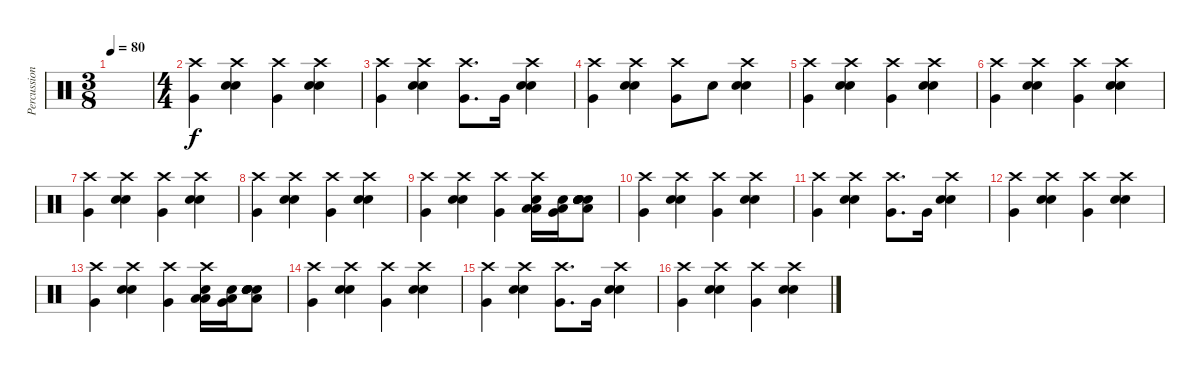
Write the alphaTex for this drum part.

\track ("Percussion" "Percussion") {instrument percussion}
\staff {score}
\articulation defaults
\ts (3 8)
\tempo 80
\clef neutral
\ks c
|
\ts (4 4)
("Crash high (hit)" "Very Low Tom (hit)").4 ("Crash high (hit)" "Snare (hit) 2" "Snare (hit) 2").4 ("Crash high (hit)" "Very Low Tom (hit)").4 ("Crash high (hit)" "Snare (hit) 2" "Snare (hit) 2").4 |
("Crash high (hit)" "Very Low Tom (hit)").4 ("Crash high (hit)" "Snare (hit) 2" "Snare (hit) 2").4 ("Crash high (hit)" "Very Low Tom (hit)").8{d} "Very Low Tom (hit)".16 ("Crash high (hit)" "Snare (hit) 2" "Snare (hit) 2").4 |
("Crash high (hit)" "Very Low Tom (hit)").4 ("Crash high (hit)" "Snare (hit) 2" "Snare (hit) 2").4 ("Crash high (hit)" "Very Low Tom (hit)").8 "Snare (hit) 2".8 ("Crash high (hit)" "Snare (hit) 2" "Snare (hit) 2").4 |
("Crash high (hit)" "Very Low Tom (hit)").4 ("Crash high (hit)" "Snare (hit) 2" "Snare (hit) 2").4 ("Crash high (hit)" "Very Low Tom (hit)").4 ("Crash high (hit)" "Snare (hit) 2" "Snare (hit) 2").4 |
("Crash high (hit)" "Very Low Tom (hit)").4 ("Crash high (hit)" "Snare (hit) 2" "Snare (hit) 2").4 ("Crash high (hit)" "Very Low Tom (hit)").4 ("Crash high (hit)" "Snare (hit) 2" "Snare (hit) 2").4 |
("Crash high (hit)" "Very Low Tom (hit)").4 ("Crash high (hit)" "Snare (hit) 2" "Snare (hit) 2").4 ("Crash high (hit)" "Very Low Tom (hit)").4 ("Crash high (hit)" "Snare (hit) 2" "Snare (hit) 2").4 |
("Crash high (hit)" "Very Low Tom (hit)").4 ("Crash high (hit)" "Snare (hit) 2" "Snare (hit) 2").4 ("Crash high (hit)" "Very Low Tom (hit)").4 ("Crash high (hit)" "Snare (hit) 2" "Snare (hit) 2").4 |
("Crash high (hit)" "Very Low Tom (hit)").4 ("Crash high (hit)" "Snare (hit) 2" "Snare (hit) 2").4 ("Crash high (hit)" "Very Low Tom (hit)").4 ("Crash high (hit)" "Low Tom (hit)" "Low Floor Tom (hit)" "Snare (hit) 2").16 ("Very Low Tom (hit)" "Low Floor Tom (hit)" "Snare (hit) 2").16 ("Snare (hit) 2" "Snare (hit) 2" "Low Floor Tom (hit)" "Snare (hit) 2" "Snare (hit) 2" "Snare (hit) 2").8 |
("Crash high (hit)" "Very Low Tom (hit)").4 ("Crash high (hit)" "Snare (hit) 2" "Snare (hit) 2").4 ("Crash high (hit)" "Very Low Tom (hit)").4 ("Crash high (hit)" "Snare (hit) 2" "Snare (hit) 2").4 |
("Crash high (hit)" "Very Low Tom (hit)").4 ("Crash high (hit)" "Snare (hit) 2" "Snare (hit) 2").4 ("Crash high (hit)" "Very Low Tom (hit)").8{d} "Very Low Tom (hit)".16 ("Crash high (hit)" "Snare (hit) 2" "Snare (hit) 2").4 |
("Crash high (hit)" "Very Low Tom (hit)").4 ("Crash high (hit)" "Snare (hit) 2" "Snare (hit) 2").4 ("Crash high (hit)" "Very Low Tom (hit)").4 ("Crash high (hit)" "Snare (hit) 2" "Snare (hit) 2").4 |
("Crash high (hit)" "Very Low Tom (hit)").4 ("Crash high (hit)" "Snare (hit) 2" "Snare (hit) 2").4 ("Crash high (hit)" "Very Low Tom (hit)").4 ("Crash high (hit)" "Low Tom (hit)" "Low Floor Tom (hit)" "Snare (hit) 2").16 ("Very Low Tom (hit)" "Low Floor Tom (hit)" "Snare (hit) 2").16 ("Snare (hit) 2" "Snare (hit) 2" "Low Floor Tom (hit)" "Snare (hit) 2" "Snare (hit) 2" "Snare (hit) 2").8 |
("Crash high (hit)" "Very Low Tom (hit)").4 ("Crash high (hit)" "Snare (hit) 2" "Snare (hit) 2").4 ("Crash high (hit)" "Very Low Tom (hit)").4 ("Crash high (hit)" "Snare (hit) 2" "Snare (hit) 2").4 |
("Crash high (hit)" "Very Low Tom (hit)").4 ("Crash high (hit)" "Snare (hit) 2" "Snare (hit) 2").4 ("Crash high (hit)" "Very Low Tom (hit)").8{d} "Very Low Tom (hit)".16 ("Crash high (hit)" "Snare (hit) 2" "Snare (hit) 2").4 |
("Crash high (hit)" "Very Low Tom (hit)").4 ("Crash high (hit)" "Snare (hit) 2" "Snare (hit) 2").4 ("Crash high (hit)" "Very Low Tom (hit)").4 ("Crash high (hit)" "Snare (hit) 2" "Snare (hit) 2").4
